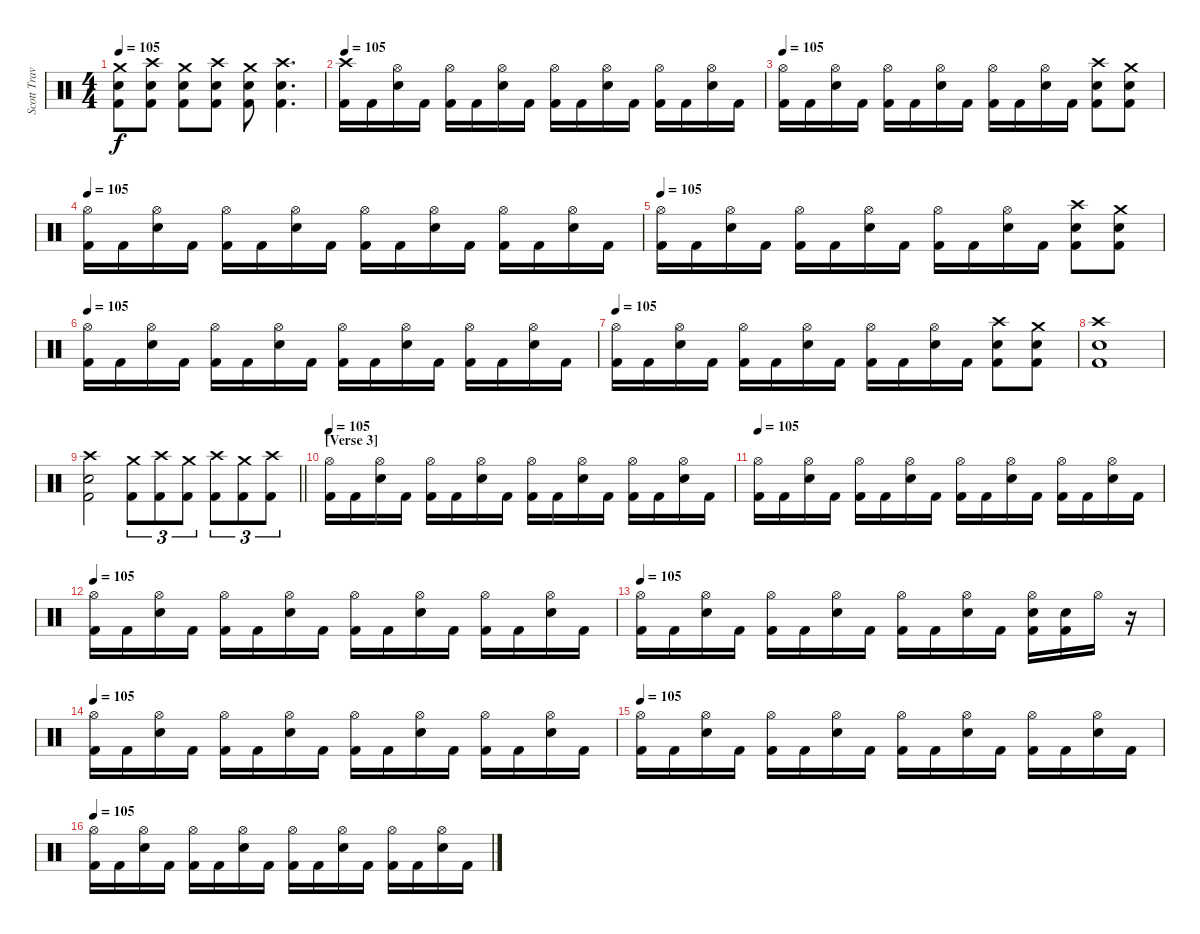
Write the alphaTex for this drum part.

\track ("Scott Travis" "Scott Trav") {instrument percussion}
\staff {score}
\articulation defaults
\ts (4 4)
\tempo 105
\clef neutral
\ks c
("Crash medium (hit)" "Snare (hit) 2" "Kick (hit) 2").8{dy f} ("Crash high (hit)" "Snare (hit) 2" "Kick (hit) 2").8 ("Crash medium (hit)" "Snare (hit) 2" "Kick (hit) 2").8 ("Crash high (hit)" "Snare (hit) 2" "Kick (hit) 2").8 ("Crash medium (hit)" "Snare (hit) 2" "Kick (hit) 2").8 ("Crash high (hit)" "Snare (hit) 2" "Kick (hit) 2").4{d} |
\tempo 105
("Crash high (hit)" "Kick (hit) 2").16 "Kick (hit) 2".16 ("Hi-Hat (open)" "Snare (hit) 2").16 "Kick (hit) 2".16 ("Hi-Hat (open)" "Kick (hit) 2").16 "Kick (hit) 2".16 ("Hi-Hat (open)" "Snare (hit) 2").16 "Kick (hit) 2".16 ("Hi-Hat (open)" "Kick (hit) 2").16 "Kick (hit) 2".16 ("Hi-Hat (open)" "Snare (hit) 2").16 "Kick (hit) 2".16 ("Hi-Hat (open)" "Kick (hit) 2").16 "Kick (hit) 2".16 ("Hi-Hat (open)" "Snare (hit) 2").16 "Kick (hit) 2".16 |
\tempo 105
("Hi-Hat (open)" "Kick (hit) 2").16 "Kick (hit) 2".16 ("Hi-Hat (open)" "Snare (hit) 2").16 "Kick (hit) 2".16 ("Hi-Hat (open)" "Kick (hit) 2").16 "Kick (hit) 2".16 ("Hi-Hat (open)" "Snare (hit) 2").16 "Kick (hit) 2".16 ("Hi-Hat (open)" "Kick (hit) 2").16 "Kick (hit) 2".16 ("Hi-Hat (open)" "Snare (hit) 2").16 "Kick (hit) 2".16 ("Crash high (hit)" "Snare (hit) 2" "Kick (hit) 2").8 ("Crash medium (hit)" "Snare (hit) 2" "Kick (hit) 2").8 |
\tempo 105
("Hi-Hat (open)" "Kick (hit) 2").16 "Kick (hit) 2".16 ("Hi-Hat (open)" "Snare (hit) 2").16 "Kick (hit) 2".16 ("Hi-Hat (open)" "Kick (hit) 2").16 "Kick (hit) 2".16 ("Hi-Hat (open)" "Snare (hit) 2").16 "Kick (hit) 2".16 ("Hi-Hat (open)" "Kick (hit) 2").16 "Kick (hit) 2".16 ("Hi-Hat (open)" "Snare (hit) 2").16 "Kick (hit) 2".16 ("Hi-Hat (open)" "Kick (hit) 2").16 "Kick (hit) 2".16 ("Hi-Hat (open)" "Snare (hit) 2").16 "Kick (hit) 2".16 |
\tempo 105
("Hi-Hat (open)" "Kick (hit) 2").16 "Kick (hit) 2".16 ("Hi-Hat (open)" "Snare (hit) 2").16 "Kick (hit) 2".16 ("Hi-Hat (open)" "Kick (hit) 2").16 "Kick (hit) 2".16 ("Hi-Hat (open)" "Snare (hit) 2").16 "Kick (hit) 2".16 ("Hi-Hat (open)" "Kick (hit) 2").16 "Kick (hit) 2".16 ("Hi-Hat (open)" "Snare (hit) 2").16 "Kick (hit) 2".16 ("Crash high (hit)" "Snare (hit) 2" "Kick (hit) 2").8 ("Crash medium (hit)" "Snare (hit) 2" "Kick (hit) 2").8 |
\tempo 105
("Hi-Hat (open)" "Kick (hit) 2").16 "Kick (hit) 2".16 ("Hi-Hat (open)" "Snare (hit) 2").16 "Kick (hit) 2".16 ("Hi-Hat (open)" "Kick (hit) 2").16 "Kick (hit) 2".16 ("Hi-Hat (open)" "Snare (hit) 2").16 "Kick (hit) 2".16 ("Hi-Hat (open)" "Kick (hit) 2").16 "Kick (hit) 2".16 ("Hi-Hat (open)" "Snare (hit) 2").16 "Kick (hit) 2".16 ("Hi-Hat (open)" "Kick (hit) 2").16 "Kick (hit) 2".16 ("Hi-Hat (open)" "Snare (hit) 2").16 "Kick (hit) 2".16 |
\tempo 105
("Hi-Hat (open)" "Kick (hit) 2").16 "Kick (hit) 2".16 ("Hi-Hat (open)" "Snare (hit) 2").16 "Kick (hit) 2".16 ("Hi-Hat (open)" "Kick (hit) 2").16 "Kick (hit) 2".16 ("Hi-Hat (open)" "Snare (hit) 2").16 "Kick (hit) 2".16 ("Hi-Hat (open)" "Kick (hit) 2").16 "Kick (hit) 2".16 ("Hi-Hat (open)" "Snare (hit) 2").16 "Kick (hit) 2".16 ("Crash high (hit)" "Snare (hit) 2" "Kick (hit) 2").8 ("Crash medium (hit)" "Snare (hit) 2" "Kick (hit) 2").8 |
("Crash high (hit)" "Snare (hit) 2" "Kick (hit) 2").1 |
\barLineRight lightlight
("Crash high (hit)" "Snare (hit) 2" "Kick (hit) 2").2 ("Crash medium (hit)" "Kick (hit) 2").8{tu (3 2)} ("Crash high (hit)" "Kick (hit) 2").8{tu (3 2)} ("Crash medium (hit)" "Kick (hit) 2").8{tu (3 2)} ("Crash high (hit)" "Kick (hit) 2").8{tu (3 2)} ("Crash medium (hit)" "Kick (hit) 2").8{tu (3 2)} ("Crash high (hit)" "Kick (hit) 2").8{tu (3 2)} |
\section ("" "[Verse 3]")
\tempo 105
("Hi-Hat (open)" "Kick (hit) 2").16 "Kick (hit) 2".16 ("Hi-Hat (open)" "Snare (hit) 2").16 "Kick (hit) 2".16 ("Hi-Hat (open)" "Kick (hit) 2").16 "Kick (hit) 2".16 ("Hi-Hat (open)" "Snare (hit) 2").16 "Kick (hit) 2".16 ("Hi-Hat (open)" "Kick (hit) 2").16 "Kick (hit) 2".16 ("Hi-Hat (open)" "Snare (hit) 2").16 "Kick (hit) 2".16 ("Hi-Hat (open)" "Kick (hit) 2").16 "Kick (hit) 2".16 ("Hi-Hat (open)" "Snare (hit) 2").16 "Kick (hit) 2".16 |
\tempo 105
("Hi-Hat (open)" "Kick (hit) 2").16 "Kick (hit) 2".16 ("Hi-Hat (open)" "Snare (hit) 2").16 "Kick (hit) 2".16 ("Hi-Hat (open)" "Kick (hit) 2").16 "Kick (hit) 2".16 ("Hi-Hat (open)" "Snare (hit) 2").16 "Kick (hit) 2".16 ("Hi-Hat (open)" "Kick (hit) 2").16 "Kick (hit) 2".16 ("Hi-Hat (open)" "Snare (hit) 2").16 "Kick (hit) 2".16 ("Hi-Hat (open)" "Kick (hit) 2").16 "Kick (hit) 2".16 ("Hi-Hat (open)" "Snare (hit) 2").16 "Kick (hit) 2".16 |
\tempo 105
("Hi-Hat (open)" "Kick (hit) 2").16 "Kick (hit) 2".16 ("Hi-Hat (open)" "Snare (hit) 2").16 "Kick (hit) 2".16 ("Hi-Hat (open)" "Kick (hit) 2").16 "Kick (hit) 2".16 ("Hi-Hat (open)" "Snare (hit) 2").16 "Kick (hit) 2".16 ("Hi-Hat (open)" "Kick (hit) 2").16 "Kick (hit) 2".16 ("Hi-Hat (open)" "Snare (hit) 2").16 "Kick (hit) 2".16 ("Hi-Hat (open)" "Kick (hit) 2").16 "Kick (hit) 2".16 ("Hi-Hat (open)" "Snare (hit) 2").16 "Kick (hit) 2".16 |
\tempo 105
("Hi-Hat (open)" "Kick (hit) 2").16 "Kick (hit) 2".16 ("Hi-Hat (open)" "Snare (hit) 2").16 "Kick (hit) 2".16 ("Hi-Hat (open)" "Kick (hit) 2").16 "Kick (hit) 2".16 ("Hi-Hat (open)" "Snare (hit) 2").16 "Kick (hit) 2".16 ("Hi-Hat (open)" "Kick (hit) 2").16 "Kick (hit) 2".16 ("Hi-Hat (open)" "Snare (hit) 2").16 "Kick (hit) 2".16 ("Hi-Hat (open)" "Snare (hit) 2" "Kick (hit) 2").16 ("Snare (hit) 2" "Kick (hit) 2").16 "Hi-Hat (open)".16 r.16 |
\tempo 105
("Hi-Hat (open)" "Kick (hit) 2").16 "Kick (hit) 2".16 ("Hi-Hat (open)" "Snare (hit) 2").16 "Kick (hit) 2".16 ("Hi-Hat (open)" "Kick (hit) 2").16 "Kick (hit) 2".16 ("Hi-Hat (open)" "Snare (hit) 2").16 "Kick (hit) 2".16 ("Hi-Hat (open)" "Kick (hit) 2").16 "Kick (hit) 2".16 ("Hi-Hat (open)" "Snare (hit) 2").16 "Kick (hit) 2".16 ("Hi-Hat (open)" "Kick (hit) 2").16 "Kick (hit) 2".16 ("Hi-Hat (open)" "Snare (hit) 2").16 "Kick (hit) 2".16 |
\tempo 105
("Hi-Hat (open)" "Kick (hit) 2").16 "Kick (hit) 2".16 ("Hi-Hat (open)" "Snare (hit) 2").16 "Kick (hit) 2".16 ("Hi-Hat (open)" "Kick (hit) 2").16 "Kick (hit) 2".16 ("Hi-Hat (open)" "Snare (hit) 2").16 "Kick (hit) 2".16 ("Hi-Hat (open)" "Kick (hit) 2").16 "Kick (hit) 2".16 ("Hi-Hat (open)" "Snare (hit) 2").16 "Kick (hit) 2".16 ("Hi-Hat (open)" "Kick (hit) 2").16 "Kick (hit) 2".16 ("Hi-Hat (open)" "Snare (hit) 2").16 "Kick (hit) 2".16 |
\tempo 105
("Hi-Hat (open)" "Kick (hit) 2").16 "Kick (hit) 2".16 ("Hi-Hat (open)" "Snare (hit) 2").16 "Kick (hit) 2".16 ("Hi-Hat (open)" "Kick (hit) 2").16 "Kick (hit) 2".16 ("Hi-Hat (open)" "Snare (hit) 2").16 "Kick (hit) 2".16 ("Hi-Hat (open)" "Kick (hit) 2").16 "Kick (hit) 2".16 ("Hi-Hat (open)" "Snare (hit) 2").16 "Kick (hit) 2".16 ("Hi-Hat (open)" "Kick (hit) 2").16 "Kick (hit) 2".16 ("Hi-Hat (open)" "Snare (hit) 2").16 "Kick (hit) 2".16
